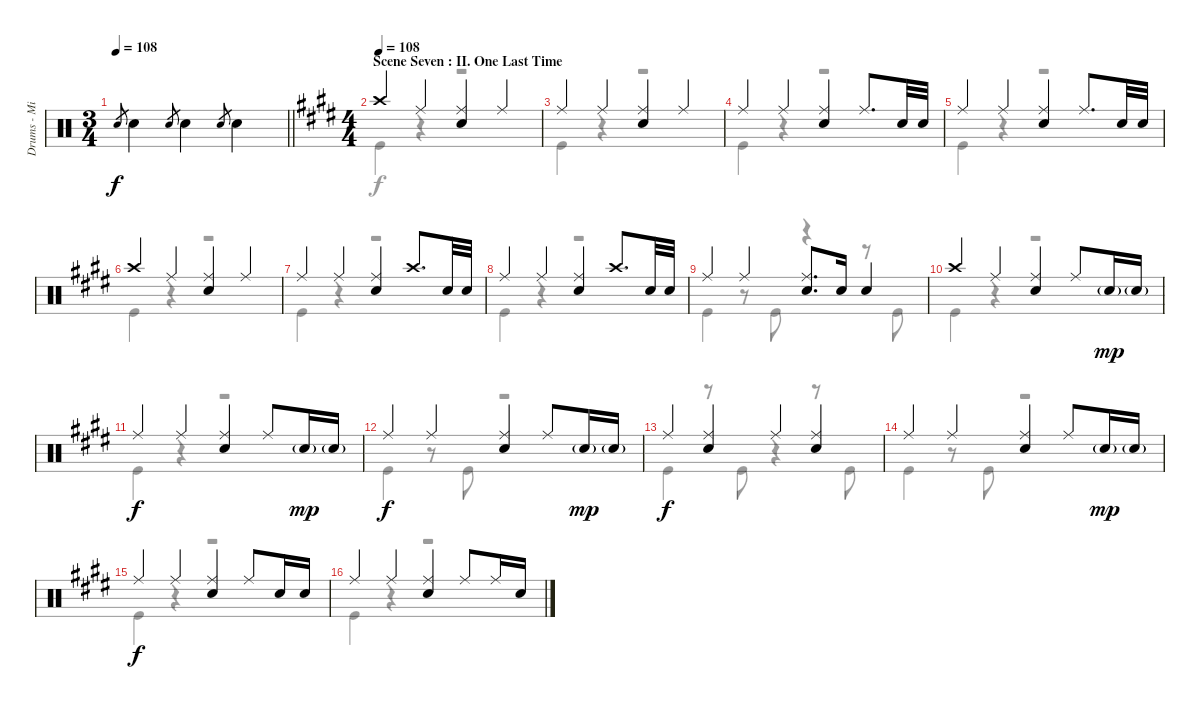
\track ("Drums - Mike Portnoy" "Drums - Mi") {instrument percussion}
\staff {score}
\articulation defaults
\voice
\ts (3 4)
\tempo 108
\clef neutral
\barLineRight lightlight
\ks c "Snare (hit) 2".8{gr dy f} "Snare (hit) 2".4 "Snare (hit) 2".8{gr} "Snare (hit) 2".4 "Snare (hit) 2".8{gr} "Snare (hit) 2".4
|
\ts (4 4)
\section ("" "Scene Seven : II. One Last Time")
\tempo 108
\ks e "Crash high (hit)".4 "Ride (middle)".4
("Ride (middle)" "Snare (hit) 2").4 "Ride (middle)".4 |
"Ride (middle)".4 "Ride (middle)".4 ("Ride (middle)" "Snare (hit) 2").4 "Ride (middle)".4 |
"Ride (middle)".4 "Ride (middle)".4 ("Ride (middle)" "Snare (hit) 2").4 "Ride (middle)".8{d} "Snare (hit) 2".32 "Snare (hit) 2".32 |
"Ride (middle)".4 "Ride (middle)".4 ("Ride (middle)" "Snare (hit) 2").4 "Ride (middle)".8{d} "Snare (hit) 2".32 "Snare (hit) 2".32 |
"Crash high (hit)".4 "Ride (middle)".4 ("Ride (middle)" "Snare (hit) 2").4 "Ride (middle)".4 |
"Ride (middle)".4 "Ride (middle)".4 ("Ride (middle)" "Snare (hit) 2").4 "Crash high (hit)".8{d} "Snare (hit) 2".32 "Snare (hit) 2".32 |
"Ride (middle)".4 "Ride (middle)".4 ("Ride (middle)" "Snare (hit) 2").4 "Crash high (hit)".8{d} "Snare (hit) 2".32 "Snare (hit) 2".32 |
"Ride (middle)".4 "Ride (middle)".4 ("Ride (middle)" "Snare (hit) 2").8{d} "Snare (hit) 2".16 "Snare (hit) 2".4 |
"Crash high (hit)".4 "Ride (middle)".4 ("Ride (middle)" "Snare (hit) 2").4 "Ride (middle)".8 "Snare (hit) 2"{g}.16{dy mp} "Snare (hit) 2"{g}.16 |
"Ride (middle)".4{dy f} "Ride (middle)".4 ("Ride (middle)" "Snare (hit) 2").4 "Ride (middle)".8 "Snare (hit) 2"{g}.16{dy mp} "Snare (hit) 2"{g}.16 |
"Ride (middle)".4{dy f} "Ride (middle)".4 ("Ride (middle)" "Snare (hit) 2").4 "Ride (middle)".8 "Snare (hit) 2"{g}.16{dy mp} "Snare (hit) 2"{g}.16 |
"Ride (middle)".4{dy f} ("Ride (middle)" "Snare (hit) 2").4 "Ride (middle)".4 ("Ride (middle)" "Snare (hit) 2").4 |
"Ride (middle)".4 "Ride (middle)".4 ("Ride (middle)" "Snare (hit) 2").4 "Ride (middle)".8 "Snare (hit) 2"{g}.16{dy mp} "Snare (hit) 2"{g}.16 |
"Ride (middle)".4{dy f} "Ride (middle)".4 ("Ride (middle)" "Snare (hit) 2").4 "Ride (middle)".8 "Snare (hit) 2".16 "Snare (hit) 2".16 |
"Ride (middle)".4 "Ride (middle)".4 ("Ride (middle)" "Snare (hit) 2").4 "Ride (middle)".8 "Ride (middle)".16 "Snare (hit) 2".16
\voice
\clef neutral
\ottava regular
\simile none
\barLineRight lightlight
\ks c
|
\ks e "Kick (hit)".4
r.4 r.2 |
"Kick (hit)".4 r.4 r.2 |
"Kick (hit)".4 r.4 r.2 |
"Kick (hit)".4 r.4 r.2 |
"Kick (hit)".4 r.4 r.2 |
"Kick (hit)".4 r.4 r.2 |
"Kick (hit)".4 r.4 r.2 |
"Kick (hit)".4 r.8 "Kick (hit)".8 r.4 r.8 "Kick (hit)".8 |
"Kick (hit)".4 r.4 r.2 |
"Kick (hit)".4 r.4 r.2 |
"Kick (hit)".4 r.8 "Kick (hit)".8 r.2 |
"Kick (hit)".4 r.8 "Kick (hit)".8 r.4 r.8 "Kick (hit)".8 |
"Kick (hit)".4 r.8 "Kick (hit)".8 r.2 |
"Kick (hit)".4 r.4 r.2 |
"Kick (hit)".4 r.4 r.2
